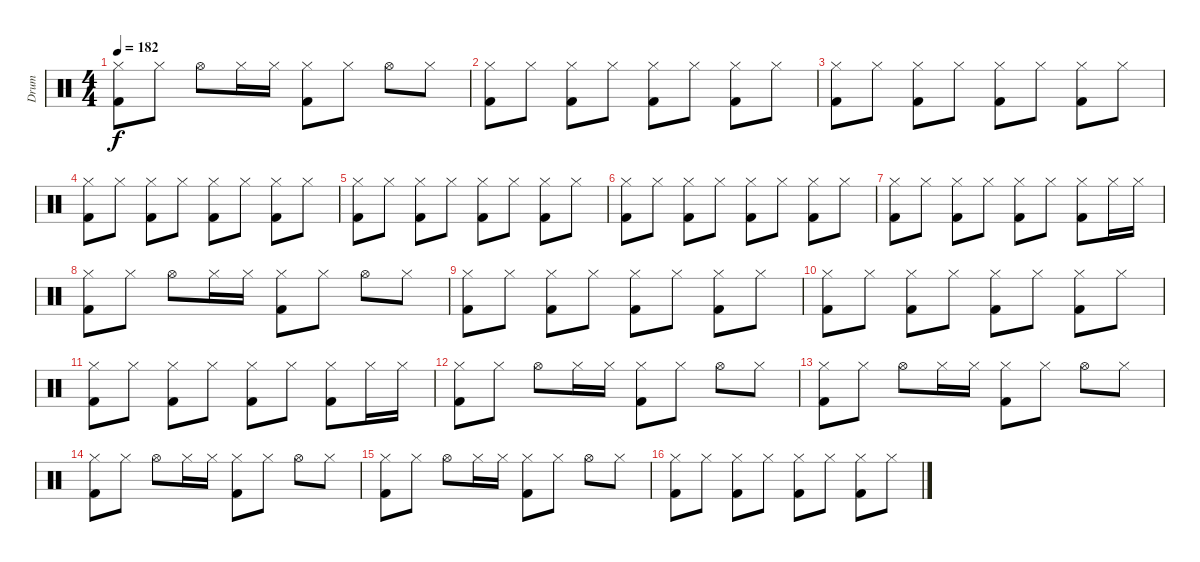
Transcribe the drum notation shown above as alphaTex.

\track ("Drum" "Drum") {instrument percussion}
\staff {score}
\articulation defaults
\ts (4 4)
\tempo 182
\clef neutral
\ks c
("Hi-Hat (closed)" "Kick (hit) 2").8{dy f} "Hi-Hat (closed)".8 "Hi-Hat (open)".8 "Hi-Hat (closed)".16 "Hi-Hat (closed)".16 ("Hi-Hat (closed)" "Kick (hit) 2").8 "Hi-Hat (closed)".8 "Hi-Hat (open)".8 "Hi-Hat (closed)".8 |
("Hi-Hat (closed)" "Kick (hit) 2").8 "Hi-Hat (closed)".8 ("Hi-Hat (closed)" "Kick (hit) 2").8 "Hi-Hat (closed)".8 ("Hi-Hat (closed)" "Kick (hit) 2").8 "Hi-Hat (closed)".8 ("Hi-Hat (closed)" "Kick (hit) 2").8 "Hi-Hat (closed)".8 |
("Hi-Hat (closed)" "Kick (hit) 2").8 "Hi-Hat (closed)".8 ("Hi-Hat (closed)" "Kick (hit) 2").8 "Hi-Hat (closed)".8 ("Hi-Hat (closed)" "Kick (hit) 2").8 "Hi-Hat (closed)".8 ("Hi-Hat (closed)" "Kick (hit) 2").8 "Hi-Hat (closed)".8 |
("Hi-Hat (closed)" "Kick (hit) 2").8 "Hi-Hat (closed)".8 ("Hi-Hat (closed)" "Kick (hit) 2").8 "Hi-Hat (closed)".8 ("Hi-Hat (closed)" "Kick (hit) 2").8 "Hi-Hat (closed)".8 ("Hi-Hat (closed)" "Kick (hit) 2").8 "Hi-Hat (closed)".8 |
("Hi-Hat (closed)" "Kick (hit) 2").8 "Hi-Hat (closed)".8 ("Hi-Hat (closed)" "Kick (hit) 2").8 "Hi-Hat (closed)".8 ("Hi-Hat (closed)" "Kick (hit) 2").8 "Hi-Hat (closed)".8 ("Hi-Hat (closed)" "Kick (hit) 2").8 "Hi-Hat (closed)".8 |
("Hi-Hat (closed)" "Kick (hit) 2").8 "Hi-Hat (closed)".8 ("Hi-Hat (closed)" "Kick (hit) 2").8 "Hi-Hat (closed)".8 ("Hi-Hat (closed)" "Kick (hit) 2").8 "Hi-Hat (closed)".8 ("Hi-Hat (closed)" "Kick (hit) 2").8 "Hi-Hat (closed)".8 |
("Hi-Hat (closed)" "Kick (hit) 2").8 "Hi-Hat (closed)".8 ("Hi-Hat (closed)" "Kick (hit) 2").8 "Hi-Hat (closed)".8 ("Hi-Hat (closed)" "Kick (hit) 2").8 "Hi-Hat (closed)".8 ("Hi-Hat (closed)" "Kick (hit) 2").8 "Hi-Hat (closed)".16 "Hi-Hat (closed)".16 |
("Hi-Hat (closed)" "Kick (hit) 2").8 "Hi-Hat (closed)".8 "Hi-Hat (open)".8 "Hi-Hat (closed)".16 "Hi-Hat (closed)".16 ("Hi-Hat (closed)" "Kick (hit) 2").8 "Hi-Hat (closed)".8 "Hi-Hat (open)".8 "Hi-Hat (closed)".8 |
("Hi-Hat (closed)" "Kick (hit) 2").8 "Hi-Hat (closed)".8 ("Hi-Hat (closed)" "Kick (hit) 2").8 "Hi-Hat (closed)".8 ("Hi-Hat (closed)" "Kick (hit) 2").8 "Hi-Hat (closed)".8 ("Hi-Hat (closed)" "Kick (hit) 2").8 "Hi-Hat (closed)".8 |
("Hi-Hat (closed)" "Kick (hit) 2").8 "Hi-Hat (closed)".8 ("Hi-Hat (closed)" "Kick (hit) 2").8 "Hi-Hat (closed)".8 ("Hi-Hat (closed)" "Kick (hit) 2").8 "Hi-Hat (closed)".8 ("Hi-Hat (closed)" "Kick (hit) 2").8 "Hi-Hat (closed)".8 |
("Hi-Hat (closed)" "Kick (hit) 2").8 "Hi-Hat (closed)".8 ("Hi-Hat (closed)" "Kick (hit) 2").8 "Hi-Hat (closed)".8 ("Hi-Hat (closed)" "Kick (hit) 2").8 "Hi-Hat (closed)".8 ("Hi-Hat (closed)" "Kick (hit) 2").8 "Hi-Hat (closed)".16 "Hi-Hat (closed)".16 |
("Hi-Hat (closed)" "Kick (hit) 2").8 "Hi-Hat (closed)".8 "Hi-Hat (open)".8 "Hi-Hat (closed)".16 "Hi-Hat (closed)".16 ("Hi-Hat (closed)" "Kick (hit) 2").8 "Hi-Hat (closed)".8 "Hi-Hat (open)".8 "Hi-Hat (closed)".8 |
("Hi-Hat (closed)" "Kick (hit) 2").8 "Hi-Hat (closed)".8 "Hi-Hat (open)".8 "Hi-Hat (closed)".16 "Hi-Hat (closed)".16 ("Hi-Hat (closed)" "Kick (hit) 2").8 "Hi-Hat (closed)".8 "Hi-Hat (open)".8 "Hi-Hat (closed)".8 |
("Hi-Hat (closed)" "Kick (hit) 2").8 "Hi-Hat (closed)".8 "Hi-Hat (open)".8 "Hi-Hat (closed)".16 "Hi-Hat (closed)".16 ("Hi-Hat (closed)" "Kick (hit) 2").8 "Hi-Hat (closed)".8 "Hi-Hat (open)".8 "Hi-Hat (closed)".8 |
("Hi-Hat (closed)" "Kick (hit) 2").8 "Hi-Hat (closed)".8 "Hi-Hat (open)".8 "Hi-Hat (closed)".16 "Hi-Hat (closed)".16 ("Hi-Hat (closed)" "Kick (hit) 2").8 "Hi-Hat (closed)".8 "Hi-Hat (open)".8 "Hi-Hat (closed)".8 |
("Hi-Hat (closed)" "Kick (hit) 2").8 "Hi-Hat (closed)".8 ("Hi-Hat (closed)" "Kick (hit) 2").8 "Hi-Hat (closed)".8 ("Hi-Hat (closed)" "Kick (hit) 2").8 "Hi-Hat (closed)".8 ("Hi-Hat (closed)" "Kick (hit) 2").8 "Hi-Hat (closed)".8
